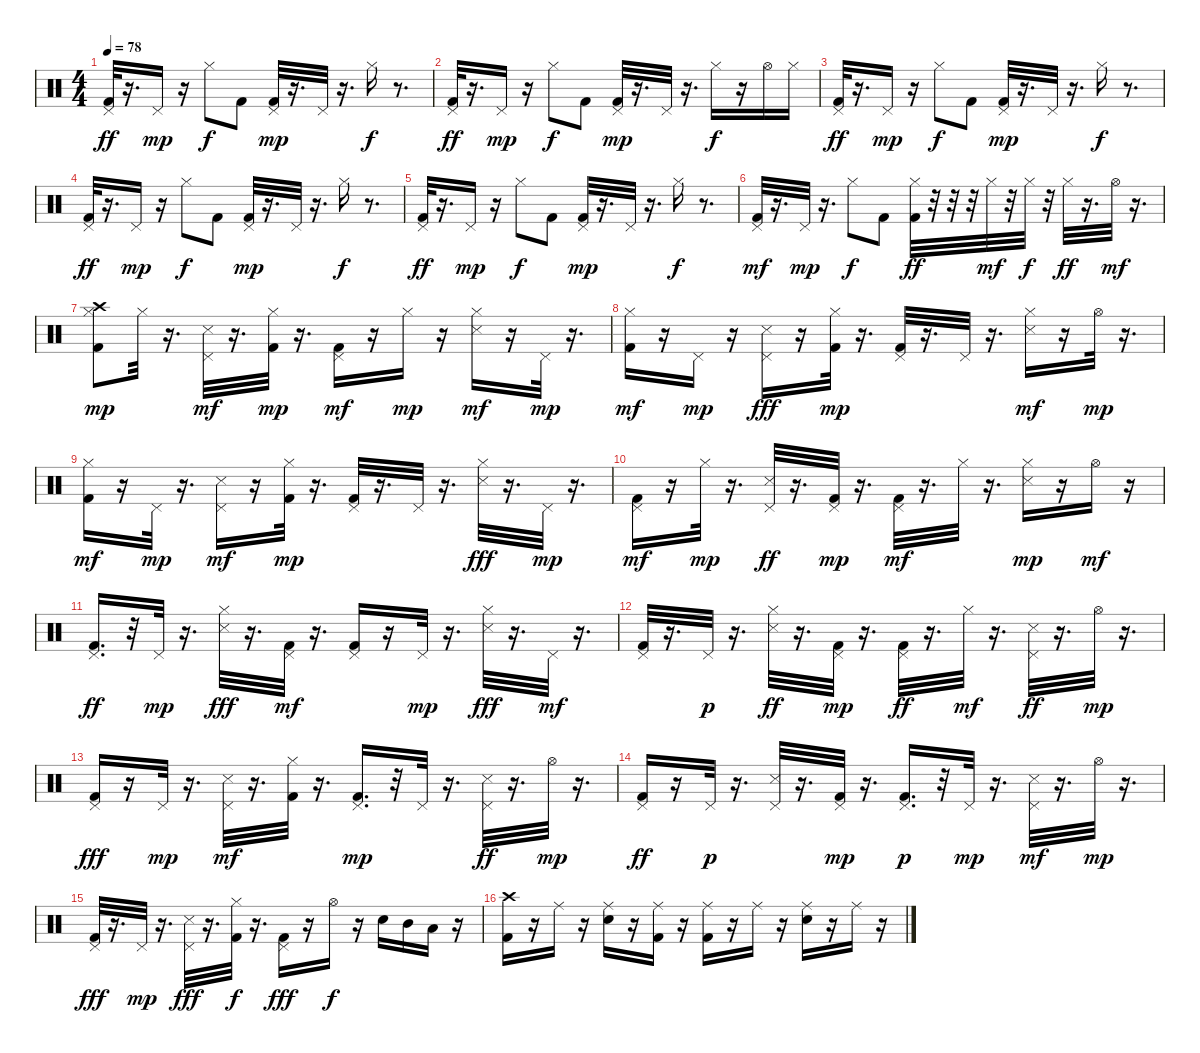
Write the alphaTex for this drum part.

\track "" {instrument percussion}
\staff {score}
\articulation defaults
\ts (4 4)
\tempo 78
\clef neutral
\ks c
("Pedal Hi-Hat (hit)" "Kick (hit) 2").32{dy ff} r.16{d} "Pedal Hi-Hat (hit)".16{dy mp} r.16 "Hi-Hat (closed)".8{dy f} "Kick (hit) 2".8 ("Pedal Hi-Hat (hit)" "Kick (hit) 2").32{dy mp} r.16{d} "Pedal Hi-Hat (hit)".32 r.16{d} "Hi-Hat (closed)".16{dy f} r.8{d} |
("Pedal Hi-Hat (hit)" "Kick (hit) 2").32{dy ff} r.16{d} "Pedal Hi-Hat (hit)".16{dy mp} r.16 "Hi-Hat (closed)".8{dy f} "Kick (hit) 2".8 ("Pedal Hi-Hat (hit)" "Kick (hit) 2").32{dy mp} r.16{d} "Pedal Hi-Hat (hit)".32 r.16{d} "Hi-Hat (closed)".16{dy f} r.16 "Hi-Hat (open)".16 "Hi-Hat (closed)".16 |
("Pedal Hi-Hat (hit)" "Kick (hit) 2").32{dy ff} r.16{d} "Pedal Hi-Hat (hit)".16{dy mp} r.16 "Hi-Hat (closed)".8{dy f} "Kick (hit) 2".8 ("Pedal Hi-Hat (hit)" "Kick (hit) 2").32{dy mp} r.16{d} "Pedal Hi-Hat (hit)".32 r.16{d} "Hi-Hat (closed)".16{dy f} r.8{d} |
("Pedal Hi-Hat (hit)" "Kick (hit) 2").32{dy ff} r.16{d} "Pedal Hi-Hat (hit)".16{dy mp} r.16 "Hi-Hat (closed)".8{dy f} "Kick (hit) 2".8 ("Pedal Hi-Hat (hit)" "Kick (hit) 2").32{dy mp} r.16{d} "Pedal Hi-Hat (hit)".32 r.16{d} "Hi-Hat (closed)".16{dy f} r.8{d} |
("Pedal Hi-Hat (hit)" "Kick (hit) 2").32{dy ff} r.16{d} "Pedal Hi-Hat (hit)".16{dy mp} r.16 "Hi-Hat (closed)".8{dy f} "Kick (hit) 2".8 ("Pedal Hi-Hat (hit)" "Kick (hit) 2").32{dy mp} r.16{d} "Pedal Hi-Hat (hit)".32 r.16{d} "Hi-Hat (closed)".16{dy f} r.8{d} |
("Pedal Hi-Hat (hit)" "Kick (hit) 2").32{dy mf} r.16{d} "Pedal Hi-Hat (hit)".32{dy mp} r.16{d} "Hi-Hat (closed)".8{dy f} "Kick (hit) 2".8 ("Hi-Hat (closed)" "Kick (hit) 2").32{dy ff} r.32 r.32 r.32 "Hi-Hat (closed)".32{dy mf} r.32 "Hi-Hat (closed)".32{dy f} r.32 "Hi-Hat (closed)".32{dy ff} r.16{d} "Hi-Hat (open)".32{dy mf} r.16{d} |
("Kick (hit) 2" "Hi-Hat (closed)" "Crash high (hit)").8{dy mp} "Hi-Hat (closed)".32 r.16{d} ("Snare (side stick) 3" "Pedal Hi-Hat (hit)").32{dy mf} r.16{d} ("Kick (hit) 2" "Hi-Hat (closed)").32{dy mp} r.16{d} ("Kick (hit) 2" "Pedal Hi-Hat (hit)").16{dy mf} r.16 "Hi-Hat (closed)".16{dy mp} r.16 ("Snare (side stick) 3" "Hi-Hat (closed)").16{dy mf} r.16 "Pedal Hi-Hat (hit)".32{dy mp} r.16{d} |
("Kick (hit) 2" "Hi-Hat (closed)").16{dy mf} r.16 "Pedal Hi-Hat (hit)".16{dy mp} r.16 ("Snare (side stick) 3" "Pedal Hi-Hat (hit)").16{dy fff} r.16 ("Kick (hit) 2" "Hi-Hat (closed)").32{dy mp} r.16{d} ("Kick (hit) 2" "Pedal Hi-Hat (hit)").32 r.16{d} "Pedal Hi-Hat (hit)".32 r.16{d} ("Snare (side stick) 3" "Hi-Hat (closed)").16{dy mf} r.16 "Hi-Hat (open)".32{dy mp} r.16{d} |
("Kick (hit) 2" "Hi-Hat (closed)").16{dy mf} r.16 "Pedal Hi-Hat (hit)".32{dy mp} r.16{d} ("Snare (side stick) 3" "Pedal Hi-Hat (hit)").16{dy mf} r.16 ("Kick (hit) 2" "Hi-Hat (closed)").32{dy mp} r.16{d} ("Kick (hit) 2" "Pedal Hi-Hat (hit)").32 r.16{d} "Pedal Hi-Hat (hit)".32 r.16{d} ("Snare (side stick) 3" "Hi-Hat (closed)").32{dy fff} r.16{d} "Pedal Hi-Hat (hit)".32{dy mp} r.16{d} |
("Kick (hit) 2" "Pedal Hi-Hat (hit)").16{dy mf} r.16 "Hi-Hat (closed)".32{dy mp} r.16{d} ("Snare (side stick) 3" "Pedal Hi-Hat (hit)").32{dy ff} r.16{d} ("Kick (hit) 2" "Pedal Hi-Hat (hit)").32{dy mp} r.16{d} ("Kick (hit) 2" "Pedal Hi-Hat (hit)").32{dy mf} r.16{d} "Hi-Hat (closed)".32 r.16{d} ("Snare (side stick) 3" "Hi-Hat (closed)").16{dy mp} r.16 "Hi-Hat (open)".16{dy mf} r.16 |
("Kick (hit) 2" "Pedal Hi-Hat (hit)").16{d dy ff} r.32 "Pedal Hi-Hat (hit)".32{dy mp} r.16{d} ("Snare (side stick) 3" "Hi-Hat (closed)").32{dy fff} r.16{d} ("Kick (hit) 2" "Pedal Hi-Hat (hit)").32{dy mf} r.16{d} ("Kick (hit) 2" "Pedal Hi-Hat (hit)").16 r.16 "Pedal Hi-Hat (hit)".32{dy mp} r.16{d} ("Snare (side stick) 3" "Hi-Hat (closed)").32{dy fff} r.16{d} "Pedal Hi-Hat (hit)".32{dy mf} r.16{d} |
("Kick (hit) 2" "Pedal Hi-Hat (hit)").32 r.16{d} "Pedal Hi-Hat (hit)".32{dy p} r.16{d} ("Snare (side stick) 3" "Hi-Hat (closed)").32{dy ff} r.16{d} ("Kick (hit) 2" "Pedal Hi-Hat (hit)").32{dy mp} r.16{d} ("Kick (hit) 2" "Pedal Hi-Hat (hit)").32{dy ff} r.16{d} "Hi-Hat (closed)".32{dy mf} r.16{d} ("Snare (side stick) 3" "Pedal Hi-Hat (hit)").32{dy ff} r.16{d} "Hi-Hat (open)".32{dy mp} r.16{d} |
("Kick (hit) 2" "Pedal Hi-Hat (hit)").16{dy fff} r.16 "Pedal Hi-Hat (hit)".32{dy mp} r.16{d} ("Snare (side stick) 3" "Pedal Hi-Hat (hit)").32{dy mf} r.16{d} ("Kick (hit) 2" "Hi-Hat (closed)").32 r.16{d} ("Kick (hit) 2" "Pedal Hi-Hat (hit)").16{d dy mp} r.32 "Pedal Hi-Hat (hit)".32 r.16{d} ("Snare (side stick) 3" "Pedal Hi-Hat (hit)").32{dy ff} r.16{d} "Hi-Hat (open)".32{dy mp} r.16{d} |
("Kick (hit) 2" "Pedal Hi-Hat (hit)").16{dy ff} r.16 "Pedal Hi-Hat (hit)".32{dy p} r.16{d} ("Snare (side stick) 3" "Pedal Hi-Hat (hit)").32 r.16{d} ("Kick (hit) 2" "Pedal Hi-Hat (hit)").32{dy mp} r.16{d} ("Kick (hit) 2" "Pedal Hi-Hat (hit)").16{d dy p} r.32 "Pedal Hi-Hat (hit)".32{dy mp} r.16{d} ("Snare (side stick) 3" "Pedal Hi-Hat (hit)").32{dy mf} r.16{d} "Hi-Hat (open)".32{dy mp} r.16{d} |
("Kick (hit) 2" "Pedal Hi-Hat (hit)").32{dy fff} r.16{d} "Pedal Hi-Hat (hit)".32{dy mp} r.16{d} ("Snare (side stick) 3" "Pedal Hi-Hat (hit)").32{dy fff} r.16{d} ("Kick (hit) 2" "Hi-Hat (closed)").32{dy f} r.16{d} ("Kick (hit) 2" "Pedal Hi-Hat (hit)").16{dy fff} r.16 "Hi-Hat (open)".16{dy f} r.16 "Electric Snare (hit)".16 "Mid Tom (hit)".16 "Low Tom (hit)".16 r.16 |
("Crash high (hit)" "Kick (hit) 2").16 r.16 "Ride (middle)".16 r.16 ("Ride (middle)" "Electric Snare (hit)").16 r.16 ("Ride (middle)" "Kick (hit) 2").16 r.16 ("Ride (middle)" "Kick (hit) 2").16 r.16 "Ride (middle)".16 r.16 ("Ride (middle)" "Electric Snare (hit)").16 r.16 "Ride (middle)".16 r.16
